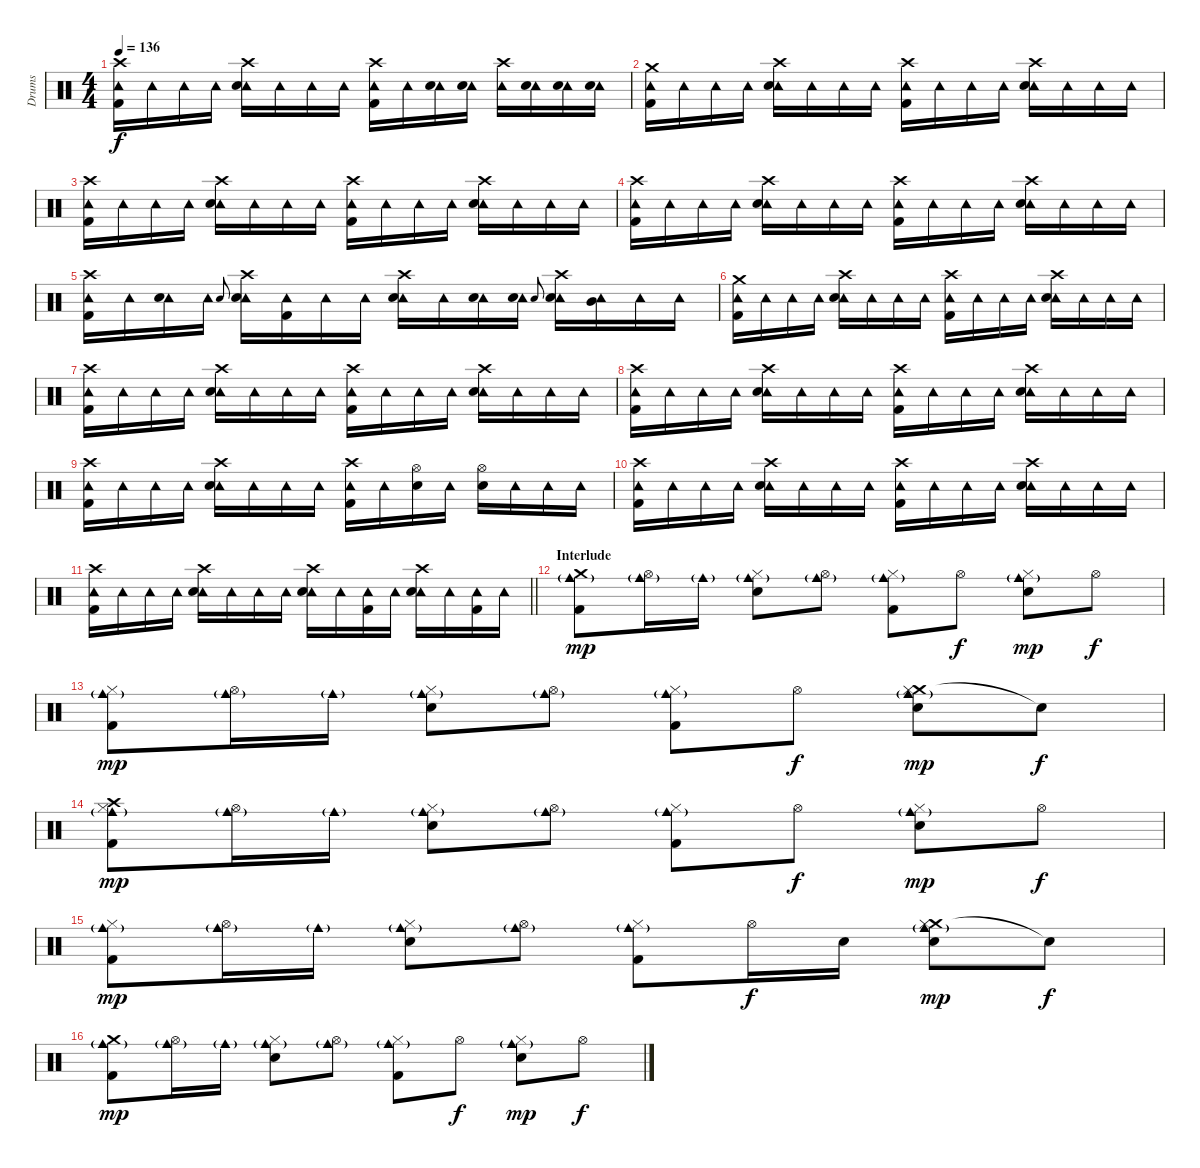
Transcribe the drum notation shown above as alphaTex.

\track ("Drums" "Drums") {instrument percussion}
\staff {score}
\articulation defaults
\ts (4 4)
\tempo 136
\clef neutral
\ks c
("Crash high (hit)" "Tambourine (hit)" "Kick (hit) 2").16{dy f} "Tambourine (hit)".16 "Tambourine (hit)".16 "Tambourine (hit)".16 ("Crash high (hit)" "Tambourine (hit)" "Electric Snare (hit)").16 "Tambourine (hit)".16 "Tambourine (hit)".16 "Tambourine (hit)".16 ("Crash high (hit)" "Tambourine (hit)" "Kick (hit) 2").16 "Tambourine (hit)".16 ("Tambourine (hit)" "Electric Snare (hit)").16 ("Tambourine (hit)" "Electric Snare (hit)").16 ("Crash high (hit)" "Tambourine (hit)").16 ("Tambourine (hit)" "Electric Snare (hit)").16 ("Tambourine (hit)" "Electric Snare (hit)").16 ("Tambourine (hit)" "Electric Snare (hit)").16 |
("Crash medium (hit)" "Tambourine (hit)" "Kick (hit) 2").16 "Tambourine (hit)".16 "Tambourine (hit)".16 "Tambourine (hit)".16 ("Crash high (hit)" "Tambourine (hit)" "Electric Snare (hit)").16 "Tambourine (hit)".16 "Tambourine (hit)".16 "Tambourine (hit)".16 ("Crash high (hit)" "Tambourine (hit)" "Kick (hit) 2").16 "Tambourine (hit)".16 "Tambourine (hit)".16 "Tambourine (hit)".16 ("Crash high (hit)" "Tambourine (hit)" "Electric Snare (hit)").16 "Tambourine (hit)".16 "Tambourine (hit)".16 "Tambourine (hit)".16 |
("Crash high (hit)" "Tambourine (hit)" "Kick (hit) 2").16 "Tambourine (hit)".16 "Tambourine (hit)".16 "Tambourine (hit)".16 ("Crash high (hit)" "Tambourine (hit)" "Electric Snare (hit)").16 "Tambourine (hit)".16 "Tambourine (hit)".16 "Tambourine (hit)".16 ("Crash high (hit)" "Tambourine (hit)" "Kick (hit) 2").16 "Tambourine (hit)".16 "Tambourine (hit)".16 "Tambourine (hit)".16 ("Crash high (hit)" "Tambourine (hit)" "Electric Snare (hit)").16 "Tambourine (hit)".16 "Tambourine (hit)".16 "Tambourine (hit)".16 |
("Crash high (hit)" "Tambourine (hit)" "Kick (hit) 2").16 "Tambourine (hit)".16 "Tambourine (hit)".16 "Tambourine (hit)".16 ("Crash high (hit)" "Tambourine (hit)" "Electric Snare (hit)").16 "Tambourine (hit)".16 "Tambourine (hit)".16 "Tambourine (hit)".16 ("Crash high (hit)" "Tambourine (hit)" "Kick (hit) 2").16 "Tambourine (hit)".16 "Tambourine (hit)".16 "Tambourine (hit)".16 ("Crash high (hit)" "Tambourine (hit)" "Electric Snare (hit)").16 "Tambourine (hit)".16 "Tambourine (hit)".16 "Tambourine (hit)".16 |
("Crash high (hit)" "Tambourine (hit)" "Kick (hit) 2").16 "Tambourine (hit)".16 ("Tambourine (hit)" "Electric Snare (hit)").16 "Tambourine (hit)".16 "Electric Snare (hit)".8{gr onbeat} ("Crash high (hit)" "Tambourine (hit)" "Electric Snare (hit)").16 ("Tambourine (hit)" "Kick (hit) 2").16 "Tambourine (hit)".16 "Tambourine (hit)".16 ("Crash high (hit)" "Tambourine (hit)" "Electric Snare (hit)").16 "Tambourine (hit)".16 ("Tambourine (hit)" "Electric Snare (hit)").16 ("Tambourine (hit)" "Electric Snare (hit)").16 "Electric Snare (hit)".8{gr onbeat} ("Crash high (hit)" "Tambourine (hit)" "Electric Snare (hit)").16 ("Tambourine (hit)" "Mid Tom (hit)").16 "Tambourine (hit)".16 "Tambourine (hit)".16 |
("Crash medium (hit)" "Tambourine (hit)" "Kick (hit) 2").16 "Tambourine (hit)".16 "Tambourine (hit)".16 "Tambourine (hit)".16 ("Crash high (hit)" "Tambourine (hit)" "Electric Snare (hit)").16 "Tambourine (hit)".16 "Tambourine (hit)".16 "Tambourine (hit)".16 ("Crash high (hit)" "Tambourine (hit)" "Kick (hit) 2").16 "Tambourine (hit)".16 "Tambourine (hit)".16 "Tambourine (hit)".16 ("Crash high (hit)" "Tambourine (hit)" "Electric Snare (hit)").16 "Tambourine (hit)".16 "Tambourine (hit)".16 "Tambourine (hit)".16 |
("Crash high (hit)" "Tambourine (hit)" "Kick (hit) 2").16 "Tambourine (hit)".16 "Tambourine (hit)".16 "Tambourine (hit)".16 ("Crash high (hit)" "Tambourine (hit)" "Electric Snare (hit)").16 "Tambourine (hit)".16 "Tambourine (hit)".16 "Tambourine (hit)".16 ("Crash high (hit)" "Tambourine (hit)" "Kick (hit) 2").16 "Tambourine (hit)".16 "Tambourine (hit)".16 "Tambourine (hit)".16 ("Crash high (hit)" "Tambourine (hit)" "Electric Snare (hit)").16 "Tambourine (hit)".16 "Tambourine (hit)".16 "Tambourine (hit)".16 |
("Crash high (hit)" "Tambourine (hit)" "Kick (hit) 2").16 "Tambourine (hit)".16 "Tambourine (hit)".16 "Tambourine (hit)".16 ("Crash high (hit)" "Tambourine (hit)" "Electric Snare (hit)").16 "Tambourine (hit)".16 "Tambourine (hit)".16 "Tambourine (hit)".16 ("Crash high (hit)" "Tambourine (hit)" "Kick (hit) 2").16 "Tambourine (hit)".16 "Tambourine (hit)".16 "Tambourine (hit)".16 ("Crash high (hit)" "Tambourine (hit)" "Electric Snare (hit)").16 "Tambourine (hit)".16 "Tambourine (hit)".16 "Tambourine (hit)".16 |
("Crash high (hit)" "Tambourine (hit)" "Kick (hit) 2").16 "Tambourine (hit)".16 "Tambourine (hit)".16 "Tambourine (hit)".16 ("Crash high (hit)" "Tambourine (hit)" "Electric Snare (hit)").16 "Tambourine (hit)".16 "Tambourine (hit)".16 "Tambourine (hit)".16 ("Crash high (hit)" "Tambourine (hit)" "Kick (hit) 2").16 "Tambourine (hit)".16 ("Hi-Hat (open)" "Electric Snare (hit)").16 "Tambourine (hit)".16 ("Hi-Hat (open)" "Electric Snare (hit)").16 "Tambourine (hit)".16 "Tambourine (hit)".16 "Tambourine (hit)".16 |
("Crash high (hit)" "Tambourine (hit)" "Kick (hit) 2").16 "Tambourine (hit)".16 "Tambourine (hit)".16 "Tambourine (hit)".16 ("Crash high (hit)" "Tambourine (hit)" "Electric Snare (hit)").16 "Tambourine (hit)".16 "Tambourine (hit)".16 "Tambourine (hit)".16 ("Crash high (hit)" "Tambourine (hit)" "Kick (hit) 2").16 "Tambourine (hit)".16 "Tambourine (hit)".16 "Tambourine (hit)".16 ("Crash high (hit)" "Tambourine (hit)" "Electric Snare (hit)").16 "Tambourine (hit)".16 "Tambourine (hit)".16 "Tambourine (hit)".16 |
\barLineRight lightlight
("Crash high (hit)" "Tambourine (hit)" "Kick (hit) 2").16 "Tambourine (hit)".16 "Tambourine (hit)".16 "Tambourine (hit)".16 ("Crash high (hit)" "Tambourine (hit)" "Electric Snare (hit)").16 "Tambourine (hit)".16 "Tambourine (hit)".16 "Tambourine (hit)".16 ("Crash high (hit)" "Tambourine (hit)" "Electric Snare (hit)").16 "Tambourine (hit)".16 ("Tambourine (hit)" "Kick (hit) 2").16 "Tambourine (hit)".16 ("Crash high (hit)" "Tambourine (hit)" "Electric Snare (hit)").16 "Tambourine (hit)".16 ("Tambourine (hit)" "Kick (hit) 2").16 "Tambourine (hit)".16 |
\section ("" "Interlude")
("Crash medium (hit)" "Cowbell medium (hit)"{g} "Kick (hit) 2").8{dy mp} ("Cowbell medium (hit)"{g} "Hi-Hat (open)").16 "Cowbell medium (hit)"{g}.16 ("Cowbell medium (hit)"{g} "Hi-Hat (closed)" "Electric Snare (hit)").8 ("Cowbell medium (hit)"{g} "Hi-Hat (open)").8 ("Cowbell medium (hit)"{g} "Hi-Hat (closed)" "Kick (hit) 2").8 "Hi-Hat (open)".8{dy f} ("Cowbell medium (hit)"{g} "Hi-Hat (closed)" "Electric Snare (hit)").8{dy mp} "Hi-Hat (open)".8{dy f} |
("Cowbell medium (hit)"{g} "Hi-Hat (closed)" "Kick (hit) 2").8{dy mp} ("Cowbell medium (hit)"{g} "Hi-Hat (open)").16 "Cowbell medium (hit)"{g}.16 ("Cowbell medium (hit)"{g} "Hi-Hat (closed)" "Electric Snare (hit)").8 ("Cowbell medium (hit)"{g} "Hi-Hat (open)").8 ("Cowbell medium (hit)"{g} "Hi-Hat (closed)" "Kick (hit) 2").8 "Hi-Hat (open)".8{dy f} ("Crash medium (hit)" "Cowbell medium (hit)"{g} "Hi-Hat (closed)" "Electric Snare (hit)").8{dy mp} "Snare (hit)"{t}.8{dy f} |
("Crash high (hit)" "Cowbell medium (hit)"{g} "Hi-Hat (closed)" "Kick (hit) 2").8{dy mp} ("Cowbell medium (hit)"{g} "Hi-Hat (open)").16 "Cowbell medium (hit)"{g}.16 ("Cowbell medium (hit)"{g} "Hi-Hat (closed)" "Electric Snare (hit)").8 ("Cowbell medium (hit)"{g} "Hi-Hat (open)").8 ("Cowbell medium (hit)"{g} "Hi-Hat (closed)" "Kick (hit) 2").8 "Hi-Hat (open)".8{dy f} ("Cowbell medium (hit)"{g} "Hi-Hat (closed)" "Electric Snare (hit)").8{dy mp} "Hi-Hat (open)".8{dy f} |
("Cowbell medium (hit)"{g} "Hi-Hat (closed)" "Kick (hit) 2").8{dy mp} ("Cowbell medium (hit)"{g} "Hi-Hat (open)").16 "Cowbell medium (hit)"{g}.16 ("Cowbell medium (hit)"{g} "Hi-Hat (closed)" "Electric Snare (hit)").8 ("Cowbell medium (hit)"{g} "Hi-Hat (open)").8 ("Cowbell medium (hit)"{g} "Hi-Hat (closed)" "Kick (hit) 2").8 "Hi-Hat (open)".16{dy f} "Electric Snare (hit)".16 ("Crash medium (hit)" "Cowbell medium (hit)"{g} "Hi-Hat (closed)" "Electric Snare (hit)").8{dy mp} "Snare (hit)"{t}.8{dy f} |
("Crash medium (hit)" "Cowbell medium (hit)"{g} "Kick (hit) 2").8{dy mp} ("Cowbell medium (hit)"{g} "Hi-Hat (open)").16 "Cowbell medium (hit)"{g}.16 ("Cowbell medium (hit)"{g} "Hi-Hat (closed)" "Electric Snare (hit)").8 ("Cowbell medium (hit)"{g} "Hi-Hat (open)").8 ("Cowbell medium (hit)"{g} "Hi-Hat (closed)" "Kick (hit) 2").8 "Hi-Hat (open)".8{dy f} ("Cowbell medium (hit)"{g} "Hi-Hat (closed)" "Electric Snare (hit)").8{dy mp} "Hi-Hat (open)".8{dy f}
